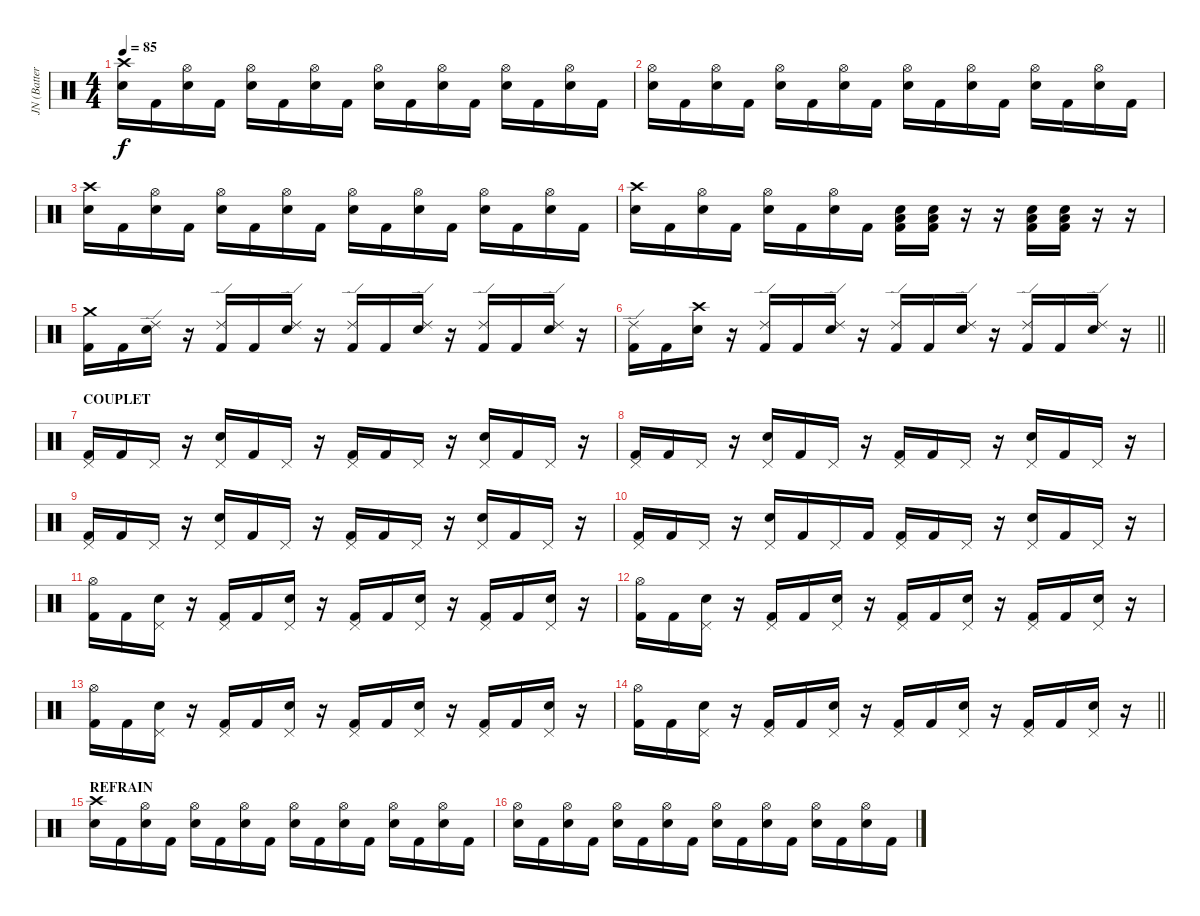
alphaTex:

\track ("JN (Batterie)" "JN (Batter") {instrument percussion}
\staff {score}
\articulation defaults
\ts (4 4)
\tempo 85
\clef neutral
\ks c
("Crash high (hit)" "Electric Snare (hit)").16{dy f} "Kick (hit) 2".16 ("Hi-Hat (open)" "Electric Snare (hit)").16 "Kick (hit) 2".16 ("Hi-Hat (open)" "Electric Snare (hit)").16 "Kick (hit) 2".16 ("Hi-Hat (open)" "Electric Snare (hit)").16 "Kick (hit) 2".16 ("Hi-Hat (open)" "Electric Snare (hit)").16 "Kick (hit) 2".16 ("Hi-Hat (open)" "Electric Snare (hit)").16 "Kick (hit) 2".16 ("Hi-Hat (open)" "Electric Snare (hit)").16 "Kick (hit) 2".16 ("Hi-Hat (open)" "Electric Snare (hit)").16 "Kick (hit) 2".16 |
("Hi-Hat (open)" "Electric Snare (hit)").16 "Kick (hit) 2".16 ("Hi-Hat (open)" "Electric Snare (hit)").16 "Kick (hit) 2".16 ("Hi-Hat (open)" "Electric Snare (hit)").16 "Kick (hit) 2".16 ("Hi-Hat (open)" "Electric Snare (hit)").16 "Kick (hit) 2".16 ("Hi-Hat (open)" "Electric Snare (hit)").16 "Kick (hit) 2".16 ("Hi-Hat (open)" "Electric Snare (hit)").16 "Kick (hit) 2".16 ("Hi-Hat (open)" "Electric Snare (hit)").16 "Kick (hit) 2".16 ("Hi-Hat (open)" "Electric Snare (hit)").16 "Kick (hit) 2".16 |
("Crash high (hit)" "Electric Snare (hit)").16 "Kick (hit) 2".16 ("Hi-Hat (open)" "Electric Snare (hit)").16 "Kick (hit) 2".16 ("Hi-Hat (open)" "Electric Snare (hit)").16 "Kick (hit) 2".16 ("Hi-Hat (open)" "Electric Snare (hit)").16 "Kick (hit) 2".16 ("Hi-Hat (open)" "Electric Snare (hit)").16 "Kick (hit) 2".16 ("Hi-Hat (open)" "Electric Snare (hit)").16 "Kick (hit) 2".16 ("Hi-Hat (open)" "Electric Snare (hit)").16 "Kick (hit) 2".16 ("Hi-Hat (open)" "Electric Snare (hit)").16 "Kick (hit) 2".16 |
("Crash high (hit)" "Electric Snare (hit)").16 "Kick (hit) 2".16 ("Hi-Hat (open)" "Electric Snare (hit)").16 "Kick (hit) 2".16 ("Hi-Hat (open)" "Electric Snare (hit)").16 "Kick (hit) 2".16 ("Hi-Hat (open)" "Electric Snare (hit)").16 "Kick (hit) 2".16 ("Electric Snare (hit)" "Kick (hit) 2" "Low Tom (hit)").16 ("Electric Snare (hit)" "Kick (hit) 2" "Low Tom (hit)").16 r.16 r.16 ("Electric Snare (hit)" "Kick (hit) 2" "Low Tom (hit)").16 ("Electric Snare (hit)" "Kick (hit) 2" "Low Tom (hit)").16 r.16 r.16 |
("Crash medium (hit)" "Kick (hit) 2").16 "Kick (hit) 2".16 ("Ride (edge) 2" "Electric Snare (hit)").16 r.16 ("Ride (edge) 2" "Kick (hit) 2").16 "Kick (hit) 2".16 ("Ride (edge) 2" "Electric Snare (hit)").16 r.16 ("Ride (edge) 2" "Kick (hit) 2").16 "Kick (hit) 2".16 ("Ride (edge) 2" "Electric Snare (hit)").16 r.16 ("Ride (edge) 2" "Kick (hit) 2").16 "Kick (hit) 2".16 ("Ride (edge) 2" "Electric Snare (hit)").16 r.16 |
\barLineRight lightlight
("Ride (edge) 2" "Kick (hit) 2").16 "Kick (hit) 2".16 ("Crash high (hit)" "Electric Snare (hit)").16 r.16 ("Ride (edge) 2" "Kick (hit) 2").16 "Kick (hit) 2".16 ("Ride (edge) 2" "Electric Snare (hit)").16 r.16 ("Ride (edge) 2" "Kick (hit) 2").16 "Kick (hit) 2".16 ("Ride (edge) 2" "Electric Snare (hit)").16 r.16 ("Ride (edge) 2" "Kick (hit) 2").16 "Kick (hit) 2".16 ("Ride (edge) 2" "Electric Snare (hit)").16 r.16 |
\section ("" "COUPLET")
("Pedal Hi-Hat (hit)" "Kick (hit) 2").16 "Kick (hit) 2".16 "Pedal Hi-Hat (hit)".16 r.16 ("Pedal Hi-Hat (hit)" "Electric Snare (hit)").16 "Kick (hit) 2".16 "Pedal Hi-Hat (hit)".16 r.16 ("Pedal Hi-Hat (hit)" "Kick (hit) 2").16 "Kick (hit) 2".16 "Pedal Hi-Hat (hit)".16 r.16 ("Pedal Hi-Hat (hit)" "Electric Snare (hit)").16 "Kick (hit) 2".16 "Pedal Hi-Hat (hit)".16 r.16 |
("Pedal Hi-Hat (hit)" "Kick (hit) 2").16 "Kick (hit) 2".16 "Pedal Hi-Hat (hit)".16 r.16 ("Pedal Hi-Hat (hit)" "Electric Snare (hit)").16 "Kick (hit) 2".16 "Pedal Hi-Hat (hit)".16 r.16 ("Pedal Hi-Hat (hit)" "Kick (hit) 2").16 "Kick (hit) 2".16 "Pedal Hi-Hat (hit)".16 r.16 ("Pedal Hi-Hat (hit)" "Electric Snare (hit)").16 "Kick (hit) 2".16 "Pedal Hi-Hat (hit)".16 r.16 |
("Pedal Hi-Hat (hit)" "Kick (hit) 2").16 "Kick (hit) 2".16 "Pedal Hi-Hat (hit)".16 r.16 ("Pedal Hi-Hat (hit)" "Electric Snare (hit)").16 "Kick (hit) 2".16 "Pedal Hi-Hat (hit)".16 r.16 ("Pedal Hi-Hat (hit)" "Kick (hit) 2").16 "Kick (hit) 2".16 "Pedal Hi-Hat (hit)".16 r.16 ("Pedal Hi-Hat (hit)" "Electric Snare (hit)").16 "Kick (hit) 2".16 "Pedal Hi-Hat (hit)".16 r.16 |
("Pedal Hi-Hat (hit)" "Kick (hit) 2").16 "Kick (hit) 2".16 "Pedal Hi-Hat (hit)".16 r.16 ("Pedal Hi-Hat (hit)" "Electric Snare (hit)").16 "Kick (hit) 2".16 "Pedal Hi-Hat (hit)".16 "Kick (hit) 2".16 ("Pedal Hi-Hat (hit)" "Kick (hit) 2").16 "Kick (hit) 2".16 "Pedal Hi-Hat (hit)".16 r.16 ("Pedal Hi-Hat (hit)" "Electric Snare (hit)").16 "Kick (hit) 2".16 "Pedal Hi-Hat (hit)".16 r.16 |
("Hi-Hat (open)" "Kick (hit) 2").16 "Kick (hit) 2".16 ("Pedal Hi-Hat (hit)" "Electric Snare (hit)").16 r.16 ("Pedal Hi-Hat (hit)" "Kick (hit) 2").16 "Kick (hit) 2".16 ("Pedal Hi-Hat (hit)" "Electric Snare (hit)").16 r.16 ("Pedal Hi-Hat (hit)" "Kick (hit) 2").16 "Kick (hit) 2".16 ("Pedal Hi-Hat (hit)" "Electric Snare (hit)").16 r.16 ("Pedal Hi-Hat (hit)" "Kick (hit) 2").16 "Kick (hit) 2".16 ("Pedal Hi-Hat (hit)" "Electric Snare (hit)").16 r.16 |
("Hi-Hat (open)" "Kick (hit) 2").16 "Kick (hit) 2".16 ("Pedal Hi-Hat (hit)" "Electric Snare (hit)").16 r.16 ("Pedal Hi-Hat (hit)" "Kick (hit) 2").16 "Kick (hit) 2".16 ("Pedal Hi-Hat (hit)" "Electric Snare (hit)").16 r.16 ("Pedal Hi-Hat (hit)" "Kick (hit) 2").16 "Kick (hit) 2".16 ("Pedal Hi-Hat (hit)" "Electric Snare (hit)").16 r.16 ("Pedal Hi-Hat (hit)" "Kick (hit) 2").16 "Kick (hit) 2".16 ("Pedal Hi-Hat (hit)" "Electric Snare (hit)").16 r.16 |
("Hi-Hat (open)" "Kick (hit) 2").16 "Kick (hit) 2".16 ("Pedal Hi-Hat (hit)" "Electric Snare (hit)").16 r.16 ("Pedal Hi-Hat (hit)" "Kick (hit) 2").16 "Kick (hit) 2".16 ("Pedal Hi-Hat (hit)" "Electric Snare (hit)").16 r.16 ("Pedal Hi-Hat (hit)" "Kick (hit) 2").16 "Kick (hit) 2".16 ("Pedal Hi-Hat (hit)" "Electric Snare (hit)").16 r.16 ("Pedal Hi-Hat (hit)" "Kick (hit) 2").16 "Kick (hit) 2".16 ("Pedal Hi-Hat (hit)" "Electric Snare (hit)").16 r.16 |
\barLineRight lightlight
("Hi-Hat (open)" "Kick (hit) 2").16 "Kick (hit) 2".16 ("Pedal Hi-Hat (hit)" "Electric Snare (hit)").16 r.16 ("Pedal Hi-Hat (hit)" "Kick (hit) 2").16 "Kick (hit) 2".16 ("Pedal Hi-Hat (hit)" "Electric Snare (hit)").16 r.16 ("Pedal Hi-Hat (hit)" "Kick (hit) 2").16 "Kick (hit) 2".16 ("Pedal Hi-Hat (hit)" "Electric Snare (hit)").16 r.16 ("Pedal Hi-Hat (hit)" "Kick (hit) 2").16 "Kick (hit) 2".16 ("Pedal Hi-Hat (hit)" "Electric Snare (hit)").16 r.16 |
\section ("" "REFRAIN")
("Crash high (hit)" "Electric Snare (hit)").16 "Kick (hit) 2".16 ("Hi-Hat (open)" "Electric Snare (hit)").16 "Kick (hit) 2".16 ("Hi-Hat (open)" "Electric Snare (hit)").16 "Kick (hit) 2".16 ("Hi-Hat (open)" "Electric Snare (hit)").16 "Kick (hit) 2".16 ("Hi-Hat (open)" "Electric Snare (hit)").16 "Kick (hit) 2".16 ("Hi-Hat (open)" "Electric Snare (hit)").16 "Kick (hit) 2".16 ("Hi-Hat (open)" "Electric Snare (hit)").16 "Kick (hit) 2".16 ("Hi-Hat (open)" "Electric Snare (hit)").16 "Kick (hit) 2".16 |
("Hi-Hat (open)" "Electric Snare (hit)").16 "Kick (hit) 2".16 ("Hi-Hat (open)" "Electric Snare (hit)").16 "Kick (hit) 2".16 ("Hi-Hat (open)" "Electric Snare (hit)").16 "Kick (hit) 2".16 ("Hi-Hat (open)" "Electric Snare (hit)").16 "Kick (hit) 2".16 ("Hi-Hat (open)" "Electric Snare (hit)").16 "Kick (hit) 2".16 ("Hi-Hat (open)" "Electric Snare (hit)").16 "Kick (hit) 2".16 ("Hi-Hat (open)" "Electric Snare (hit)").16 "Kick (hit) 2".16 ("Hi-Hat (open)" "Electric Snare (hit)").16 "Kick (hit) 2".16
